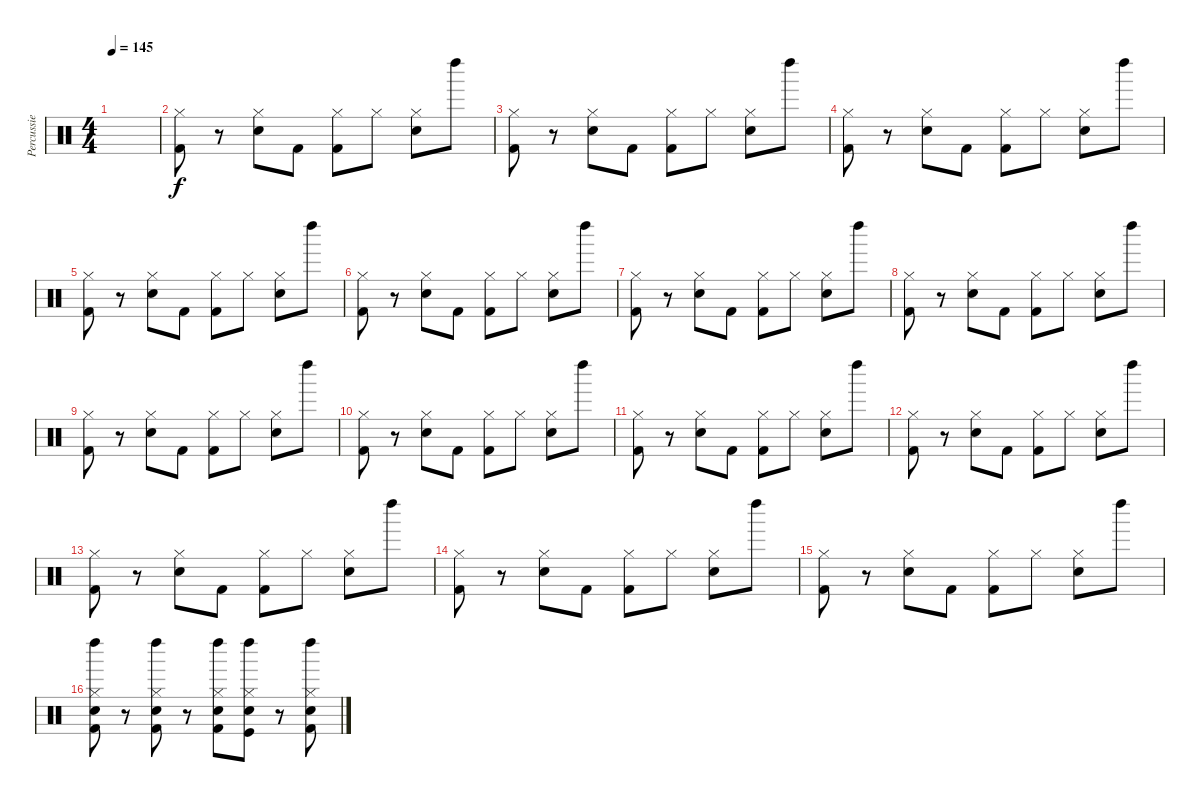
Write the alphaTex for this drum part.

\track ("Percussie" "Percussie") {instrument percussion}
\staff {score}
\articulation defaults
\ts (4 4)
\tempo 145
\clef neutral
\ks c
|
("Kick (hit) 2" "Hi-Hat (closed)").8 r.8 ("Snare (hit) 2" "Hi-Hat (closed)").8 "Kick (hit) 2".8 ("Kick (hit) 2" "Hi-Hat (closed)").8 "Hi-Hat (closed)".8 ("Snare (hit) 2" "Hi-Hat (closed)").8 "Left Maraca (hit)".8 |
("Kick (hit) 2" "Hi-Hat (closed)").8 r.8 ("Snare (hit) 2" "Hi-Hat (closed)").8 "Kick (hit) 2".8 ("Kick (hit) 2" "Hi-Hat (closed)").8 "Hi-Hat (closed)".8 ("Snare (hit) 2" "Hi-Hat (closed)").8 "Left Maraca (hit)".8 |
("Kick (hit) 2" "Hi-Hat (closed)").8 r.8 ("Snare (hit) 2" "Hi-Hat (closed)").8 "Kick (hit) 2".8 ("Kick (hit) 2" "Hi-Hat (closed)").8 "Hi-Hat (closed)".8 ("Snare (hit) 2" "Hi-Hat (closed)").8 "Left Maraca (hit)".8 |
("Kick (hit) 2" "Hi-Hat (closed)").8 r.8 ("Snare (hit) 2" "Hi-Hat (closed)").8 "Kick (hit) 2".8 ("Kick (hit) 2" "Hi-Hat (closed)").8 "Hi-Hat (closed)".8 ("Snare (hit) 2" "Hi-Hat (closed)").8 "Left Maraca (hit)".8 |
("Kick (hit) 2" "Hi-Hat (closed)").8 r.8 ("Snare (hit) 2" "Hi-Hat (closed)").8 "Kick (hit) 2".8 ("Kick (hit) 2" "Hi-Hat (closed)").8 "Hi-Hat (closed)".8 ("Snare (hit) 2" "Hi-Hat (closed)").8 "Left Maraca (hit)".8 |
("Kick (hit) 2" "Hi-Hat (closed)").8 r.8 ("Snare (hit) 2" "Hi-Hat (closed)").8 "Kick (hit) 2".8 ("Kick (hit) 2" "Hi-Hat (closed)").8 "Hi-Hat (closed)".8 ("Snare (hit) 2" "Hi-Hat (closed)").8 "Left Maraca (hit)".8 |
("Kick (hit) 2" "Hi-Hat (closed)").8 r.8 ("Snare (hit) 2" "Hi-Hat (closed)").8 "Kick (hit) 2".8 ("Kick (hit) 2" "Hi-Hat (closed)").8 "Hi-Hat (closed)".8 ("Snare (hit) 2" "Hi-Hat (closed)").8 "Left Maraca (hit)".8 |
("Kick (hit) 2" "Hi-Hat (closed)").8 r.8 ("Snare (hit) 2" "Hi-Hat (closed)").8 "Kick (hit) 2".8 ("Kick (hit) 2" "Hi-Hat (closed)").8 "Hi-Hat (closed)".8 ("Snare (hit) 2" "Hi-Hat (closed)").8 "Left Maraca (hit)".8 |
("Kick (hit) 2" "Hi-Hat (closed)").8 r.8 ("Snare (hit) 2" "Hi-Hat (closed)").8 "Kick (hit) 2".8 ("Kick (hit) 2" "Hi-Hat (closed)").8 "Hi-Hat (closed)".8 ("Snare (hit) 2" "Hi-Hat (closed)").8 "Left Maraca (hit)".8 |
("Kick (hit) 2" "Hi-Hat (closed)").8 r.8 ("Snare (hit) 2" "Hi-Hat (closed)").8 "Kick (hit) 2".8 ("Kick (hit) 2" "Hi-Hat (closed)").8 "Hi-Hat (closed)".8 ("Snare (hit) 2" "Hi-Hat (closed)").8 "Left Maraca (hit)".8 |
("Kick (hit) 2" "Hi-Hat (closed)").8 r.8 ("Snare (hit) 2" "Hi-Hat (closed)").8 "Kick (hit) 2".8 ("Kick (hit) 2" "Hi-Hat (closed)").8 "Hi-Hat (closed)".8 ("Snare (hit) 2" "Hi-Hat (closed)").8 "Left Maraca (hit)".8 |
("Kick (hit) 2" "Hi-Hat (closed)").8 r.8 ("Snare (hit) 2" "Hi-Hat (closed)").8 "Kick (hit) 2".8 ("Kick (hit) 2" "Hi-Hat (closed)").8 "Hi-Hat (closed)".8 ("Snare (hit) 2" "Hi-Hat (closed)").8 "Left Maraca (hit)".8 |
("Kick (hit) 2" "Hi-Hat (closed)").8 r.8 ("Snare (hit) 2" "Hi-Hat (closed)").8 "Kick (hit) 2".8 ("Kick (hit) 2" "Hi-Hat (closed)").8 "Hi-Hat (closed)".8 ("Snare (hit) 2" "Hi-Hat (closed)").8 "Left Maraca (hit)".8 |
("Kick (hit) 2" "Hi-Hat (closed)").8 r.8 ("Snare (hit) 2" "Hi-Hat (closed)").8 "Kick (hit) 2".8 ("Kick (hit) 2" "Hi-Hat (closed)").8 "Hi-Hat (closed)".8 ("Snare (hit) 2" "Hi-Hat (closed)").8 "Left Maraca (hit)".8 |
("Kick (hit) 2" "Left Maraca (hit)" "Snare (hit) 2" "Hi-Hat (closed)").8 r.8 ("Kick (hit) 2" "Left Maraca (hit)" "Snare (hit) 2" "Hi-Hat (closed)").8 r.8 ("Kick (hit) 2" "Left Maraca (hit)" "Snare (hit) 2" "Hi-Hat (closed)").8 ("Kick (hit)" "Left Maraca (hit)" "Snare (hit) 2" "Hi-Hat (closed)").8 r.8 ("Kick (hit) 2" "Left Maraca (hit)" "Snare (hit) 2" "Hi-Hat (closed)").8
